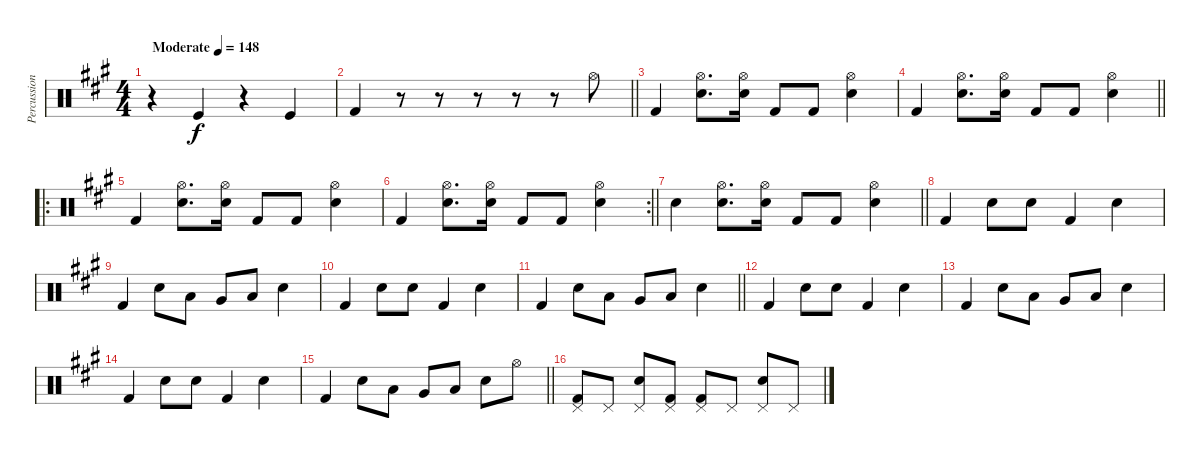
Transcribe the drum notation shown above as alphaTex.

\track ("Percussion" "Percussion") {instrument percussion}
\staff {score}
\articulation defaults
\ts (4 4)
\tempo (148 "Moderate")
\clef neutral
\ks a
r.4{dy f} "Kick (hit)".4 r.4 "Kick (hit)".4 |
\barLineRight lightlight "Kick (hit) 2".4
r.8 r.8 r.8 r.8 r.8 "Hi-Hat (open)".8 |
"Kick (hit) 2".4 ("Hi-Hat (open)" "Electric Snare (hit)").8{d} ("Hi-Hat (open)" "Electric Snare (hit)").16 "Kick (hit) 2".8 "Kick (hit) 2".8 ("Hi-Hat (open)" "Electric Snare (hit)").4 |
\barLineRight lightlight "Kick (hit) 2".4
("Hi-Hat (open)" "Electric Snare (hit)").8{d} ("Hi-Hat (open)" "Electric Snare (hit)").16 "Kick (hit) 2".8 "Kick (hit) 2".8 ("Hi-Hat (open)" "Electric Snare (hit)").4 |
\ro "Kick (hit) 2".4
("Hi-Hat (open)" "Electric Snare (hit)").8{d} ("Hi-Hat (open)" "Electric Snare (hit)").16 "Kick (hit) 2".8 "Kick (hit) 2".8 ("Hi-Hat (open)" "Electric Snare (hit)").4 |
\rc 2
\barLineRight lightlight "Kick (hit) 2".4
("Hi-Hat (open)" "Electric Snare (hit)").8{d} ("Hi-Hat (open)" "Electric Snare (hit)").16 "Kick (hit) 2".8 "Kick (hit) 2".8 ("Hi-Hat (open)" "Electric Snare (hit)").4 |
\barLineRight lightlight "Electric Snare (hit)".4
("Hi-Hat (open)" "Electric Snare (hit)").8{d} ("Hi-Hat (open)" "Electric Snare (hit)").16 "Kick (hit) 2".8 "Kick (hit) 2".8 ("Hi-Hat (open)" "Electric Snare (hit)").4 |
"Kick (hit) 2".4 "Electric Snare (hit)".8 "Electric Snare (hit)".8 "Kick (hit) 2".4 "Electric Snare (hit)".4 |
"Kick (hit) 2".4 "Electric Snare (hit)".8 "Low Tom (hit)".8 "Very Low Tom (hit)".8 "Low Floor Tom (hit)".8 "Electric Snare (hit)".4 |
"Kick (hit) 2".4 "Electric Snare (hit)".8 "Electric Snare (hit)".8 "Kick (hit) 2".4 "Electric Snare (hit)".4 |
\barLineRight lightlight "Kick (hit) 2".4 "Electric Snare (hit)".8 "Low Tom (hit)".8 "Very Low Tom (hit)".8 "Low Floor Tom (hit)".8 "Electric Snare (hit)".4
|
"Kick (hit) 2".4 "Electric Snare (hit)".8 "Electric Snare (hit)".8 "Kick (hit) 2".4 "Electric Snare (hit)".4 |
"Kick (hit) 2".4 "Electric Snare (hit)".8 "Low Tom (hit)".8 "Very Low Tom (hit)".8 "Low Floor Tom (hit)".8 "Electric Snare (hit)".4 |
"Kick (hit) 2".4 "Electric Snare (hit)".8 "Electric Snare (hit)".8 "Kick (hit) 2".4 "Electric Snare (hit)".4 |
\barLineRight lightlight "Kick (hit) 2".4 "Electric Snare (hit)".8 "Low Tom (hit)".8 "Very Low Tom (hit)".8 "Low Floor Tom (hit)".8 "Electric Snare (hit)".8 "Hi-Hat (open)".8
|
("Pedal Hi-Hat (hit)" "Kick (hit) 2").8 "Pedal Hi-Hat (hit)".8 ("Pedal Hi-Hat (hit)" "Electric Snare (hit)").8 ("Pedal Hi-Hat (hit)" "Kick (hit) 2").8 ("Pedal Hi-Hat (hit)" "Kick (hit) 2").8 "Pedal Hi-Hat (hit)".8 ("Pedal Hi-Hat (hit)" "Electric Snare (hit)").8 "Pedal Hi-Hat (hit)".8
